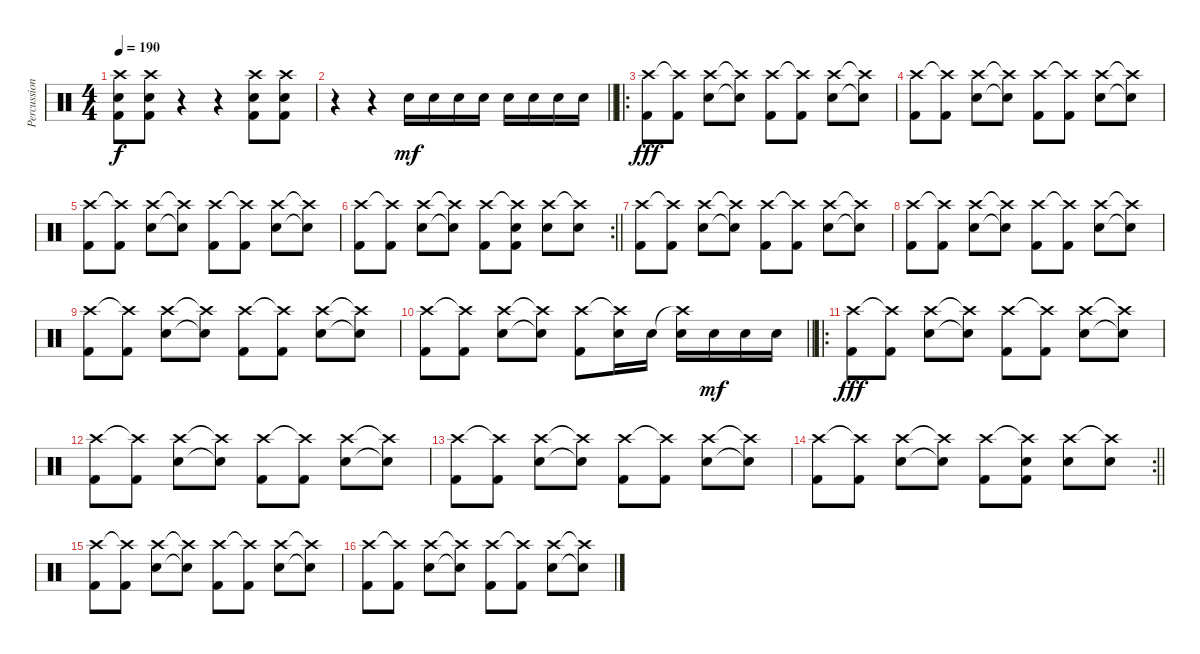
\track ("Percussion" "Percussion") {instrument percussion}
\staff {score}
\articulation defaults
\ts (4 4)
\tempo 190
\clef neutral
\ks c
("Crash high (hit)" "Snare (hit) 2" "Kick (hit) 2").8{dy f} ("Crash high (hit)" "Snare (hit) 2" "Kick (hit) 2").8 r.4 r.4 ("Crash high (hit)" "Snare (hit) 2" "Kick (hit) 2").8 ("Crash high (hit)" "Snare (hit) 2" "Kick (hit) 2").8 |
\barLineRight lightlight
r.4 r.4 "Snare (hit) 2".16{dy mf} "Snare (hit) 2".16 "Snare (hit) 2".16 "Snare (hit) 2".16 "Snare (hit) 2".16 "Snare (hit) 2".16 "Snare (hit) 2".16 "Snare (hit) 2".16 |
\ro
\section ("" "")
("Crash high (hit)" "Kick (hit) 2").8{dy fff} ("Crash high (hit)"{t} "Kick (hit) 2").8 ("Crash high (hit)" "Snare (hit) 2").8 ("Crash high (hit)"{t} "Snare (hit)"{t}).8 ("Crash high (hit)" "Kick (hit) 2").8 ("Crash high (hit)"{t} "Kick (hit) 2").8 ("Crash high (hit)" "Snare (hit) 2").8 ("Crash high (hit)"{t} "Snare (hit)"{t}).8 |
("Crash high (hit)" "Kick (hit) 2").8 ("Crash high (hit)"{t} "Kick (hit) 2").8 ("Crash high (hit)" "Snare (hit) 2").8 ("Crash high (hit)"{t} "Snare (hit)"{t}).8 ("Crash high (hit)" "Kick (hit) 2").8 ("Crash high (hit)"{t} "Kick (hit) 2").8 ("Crash high (hit)" "Snare (hit) 2").8 ("Crash high (hit)"{t} "Snare (hit)"{t}).8 |
("Crash high (hit)" "Kick (hit) 2").8 ("Crash high (hit)"{t} "Kick (hit) 2").8 ("Crash high (hit)" "Snare (hit) 2").8 ("Crash high (hit)"{t} "Snare (hit)"{t}).8 ("Crash high (hit)" "Kick (hit) 2").8 ("Crash high (hit)"{t} "Kick (hit) 2").8 ("Crash high (hit)" "Snare (hit) 2").8 ("Crash high (hit)"{t} "Snare (hit)"{t}).8 |
\rc 2
\barLineRight lightlight
("Crash high (hit)" "Kick (hit) 2").8 ("Crash high (hit)"{t} "Kick (hit) 2").8 ("Crash high (hit)" "Snare (hit) 2").8 ("Crash high (hit)"{t} "Snare (hit)"{t}).8 ("Crash high (hit)" "Kick (hit) 2").8 ("Crash high (hit)"{t} "Snare (hit) 2" "Kick (hit) 2").8 ("Crash high (hit)" "Snare (hit) 2").8 ("Crash high (hit)"{t} "Snare (hit) 2").8 |
\section ("" "")
("Crash high (hit)" "Kick (hit) 2").8 ("Crash high (hit)"{t} "Kick (hit) 2").8 ("Crash high (hit)" "Snare (hit) 2").8 ("Crash high (hit)"{t} "Snare (hit)"{t}).8 ("Crash high (hit)" "Kick (hit) 2").8 ("Crash high (hit)"{t} "Kick (hit) 2").8 ("Crash high (hit)" "Snare (hit) 2").8 ("Crash high (hit)"{t} "Snare (hit)"{t}).8 |
("Crash high (hit)" "Kick (hit) 2").8 ("Crash high (hit)"{t} "Kick (hit) 2").8 ("Crash high (hit)" "Snare (hit) 2").8 ("Crash high (hit)"{t} "Snare (hit)"{t}).8 ("Crash high (hit)" "Kick (hit) 2").8 ("Crash high (hit)"{t} "Kick (hit) 2").8 ("Crash high (hit)" "Snare (hit) 2").8 ("Crash high (hit)"{t} "Snare (hit)"{t}).8 |
("Crash high (hit)" "Kick (hit) 2").8 ("Crash high (hit)"{t} "Kick (hit) 2").8 ("Crash high (hit)" "Snare (hit) 2").8 ("Crash high (hit)"{t} "Snare (hit)"{t}).8 ("Crash high (hit)" "Kick (hit) 2").8 ("Crash high (hit)"{t} "Kick (hit) 2").8 ("Crash high (hit)" "Snare (hit) 2").8 ("Crash high (hit)"{t} "Snare (hit)"{t}).8 |
\barLineRight lightlight
("Crash high (hit)" "Kick (hit) 2").8 ("Crash high (hit)"{t} "Kick (hit) 2").8 ("Crash high (hit)" "Snare (hit) 2").8 ("Crash high (hit)"{t} "Snare (hit)"{t}).8 ("Crash high (hit)" "Kick (hit) 2").8 ("Crash high (hit)"{t} "Snare (hit) 2").16 "Snare (hit) 2".16 ("Crash high (hit)"{t} "Snare (hit) 2").16 "Snare (hit) 2".16{dy mf} "Snare (hit) 2".16 "Snare (hit) 2".16 |
\ro
\section ("" "")
("Crash high (hit)" "Kick (hit) 2").8{dy fff} ("Crash high (hit)"{t} "Kick (hit) 2").8 ("Crash high (hit)" "Snare (hit) 2").8 ("Crash high (hit)"{t} "Snare (hit)"{t}).8 ("Crash high (hit)" "Kick (hit) 2").8 ("Crash high (hit)"{t} "Kick (hit) 2").8 ("Crash high (hit)" "Snare (hit) 2").8 ("Crash high (hit)"{t} "Snare (hit)"{t}).8 |
("Crash high (hit)" "Kick (hit) 2").8 ("Crash high (hit)"{t} "Kick (hit) 2").8 ("Crash high (hit)" "Snare (hit) 2").8 ("Crash high (hit)"{t} "Snare (hit)"{t}).8 ("Crash high (hit)" "Kick (hit) 2").8 ("Crash high (hit)"{t} "Kick (hit) 2").8 ("Crash high (hit)" "Snare (hit) 2").8 ("Crash high (hit)"{t} "Snare (hit)"{t}).8 |
("Crash high (hit)" "Kick (hit) 2").8 ("Crash high (hit)"{t} "Kick (hit) 2").8 ("Crash high (hit)" "Snare (hit) 2").8 ("Crash high (hit)"{t} "Snare (hit)"{t}).8 ("Crash high (hit)" "Kick (hit) 2").8 ("Crash high (hit)"{t} "Kick (hit) 2").8 ("Crash high (hit)" "Snare (hit) 2").8 ("Crash high (hit)"{t} "Snare (hit)"{t}).8 |
\rc 2
\barLineRight lightlight
("Crash high (hit)" "Kick (hit) 2").8 ("Crash high (hit)"{t} "Kick (hit) 2").8 ("Crash high (hit)" "Snare (hit) 2").8 ("Crash high (hit)"{t} "Snare (hit)"{t}).8 ("Crash high (hit)" "Kick (hit) 2").8 ("Crash high (hit)"{t} "Snare (hit) 2" "Kick (hit) 2").8 ("Crash high (hit)" "Snare (hit) 2").8 ("Crash high (hit)"{t} "Snare (hit) 2").8 |
\section ("" "")
("Crash high (hit)" "Kick (hit) 2").8 ("Crash high (hit)"{t} "Kick (hit) 2").8 ("Crash high (hit)" "Snare (hit) 2").8 ("Crash high (hit)"{t} "Snare (hit)"{t}).8 ("Crash high (hit)" "Kick (hit) 2").8 ("Crash high (hit)"{t} "Kick (hit) 2").8 ("Crash high (hit)" "Snare (hit) 2").8 ("Crash high (hit)"{t} "Snare (hit)"{t}).8 |
("Crash high (hit)" "Kick (hit) 2").8 ("Crash high (hit)"{t} "Kick (hit) 2").8 ("Crash high (hit)" "Snare (hit) 2").8 ("Crash high (hit)"{t} "Snare (hit)"{t}).8 ("Crash high (hit)" "Kick (hit) 2").8 ("Crash high (hit)"{t} "Kick (hit) 2").8 ("Crash high (hit)" "Snare (hit) 2").8 ("Crash high (hit)"{t} "Snare (hit)"{t}).8
